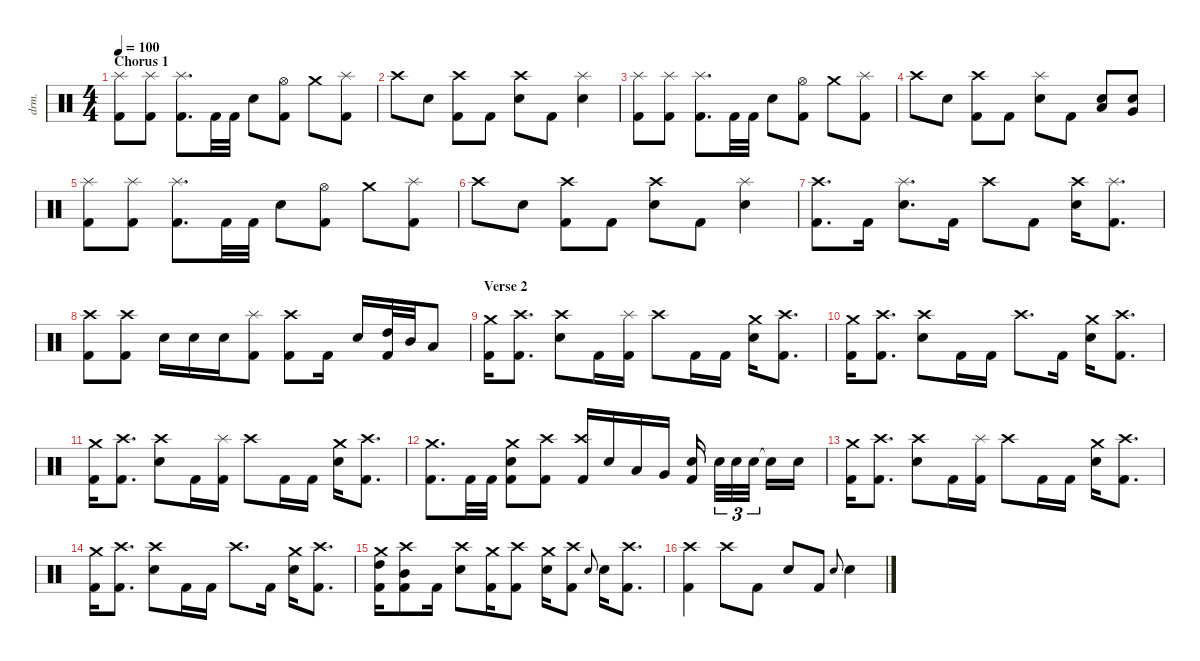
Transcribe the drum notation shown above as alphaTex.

\defaultSystemsLayout 4
\hideDynamics
\bracketExtendMode nobrackets
\otherSystemsTrackNameOrientation horizontal
\track ("Jorge" "drm.") {instrument percussion}
\staff {score}
\articulation defaults
\ts (4 4)
\section ("" "Chorus 1")
\tempo 100
\clef neutral
\ks c
("Splash (hit)" "Kick (hit) 2").8{dy mf beam Down} ("Kick (hit) 2" "Splash (hit)").8{beam Down} ("Kick (hit) 2" "Splash (hit)").8{d beam Down} "Kick (hit) 2".32{beam Down} "Kick (hit) 2".32{beam Down} "Snare (hit) 2".8{beam Down} ("Kick (hit) 2" "Hi-Hat (open)").8{beam Down} "Crash medium (hit)".8{beam Down} ("Splash (hit)" "Kick (hit) 2").8{beam Down} |
"Crash high (hit)".8{beam Down} "Snare (hit) 2".8{beam Down} ("Kick (hit) 2" "Crash high (hit)").8{beam Down} "Kick (hit) 2".8{beam Down} ("Snare (hit) 2" "Crash high (hit)").8{beam Down} "Kick (hit) 2".8{beam Down} ("Snare (hit) 2" "Splash (hit)").4{beam Down} |
("Splash (hit)" "Kick (hit) 2").8{beam Down} ("Kick (hit) 2" "Splash (hit)").8{beam Down} ("Kick (hit) 2" "Splash (hit)").8{d beam Down} "Kick (hit) 2".32{beam Down} "Kick (hit) 2".32{beam Down} "Snare (hit) 2".8{beam Down} ("Kick (hit) 2" "Hi-Hat (open)").8{beam Down} "Crash medium (hit)".8{beam Down} ("Splash (hit)" "Kick (hit) 2").8{beam Down} |
"Crash high (hit)".8{beam Down} "Snare (hit) 2".8{beam Down} ("Kick (hit) 2" "Crash high (hit)").8{beam Down} "Kick (hit) 2".8{beam Down} ("Snare (hit) 2" "Splash (hit)").8{beam Down} "Kick (hit) 2".8{beam Down} ("Snare (hit) 2" "Low Tom (hit)").8{beam Up} ("Snare (hit) 2" "Very Low Tom (hit)").8{beam Up} |
("Splash (hit)" "Kick (hit) 2").8{beam Down} ("Kick (hit) 2" "Splash (hit)").8{beam Down} ("Kick (hit) 2" "Splash (hit)").8{d beam Down} "Kick (hit) 2".32{beam Down} "Kick (hit) 2".32{beam Down} "Snare (hit) 2".8{beam Down} ("Kick (hit) 2" "Hi-Hat (open)").8{beam Down} "Crash medium (hit)".8{beam Down} ("Splash (hit)" "Kick (hit) 2").8{beam Down} |
"Crash high (hit)".8{beam Down} "Snare (hit) 2".8{beam Down} ("Kick (hit) 2" "Crash high (hit)").8{beam Down} "Kick (hit) 2".8{beam Down} ("Snare (hit) 2" "Crash high (hit)").8{beam Down} "Kick (hit) 2".8{beam Down} ("Snare (hit) 2" "Splash (hit)").4{beam Down} |
("Crash high (hit)" "Kick (hit) 2").8{d beam Down} "Kick (hit) 2".16{beam Down} ("Snare (hit) 2" "Splash (hit)").8{d beam Down} "Kick (hit) 2".16{beam Down} "Crash high (hit)".8{beam Down} "Kick (hit) 2".8{beam Down} ("Snare (hit) 2" "Crash high (hit)").16{beam Down} ("Kick (hit) 2" "Splash (hit)").8{d beam Down} |
("Kick (hit) 2" "Crash high (hit)").8{beam Down} ("Kick (hit) 2" "Crash high (hit)").8{beam Down} "Snare (hit) 2".16{beam Down} "Snare (hit) 2".16{beam Down} "Snare (hit) 2".16{beam Down} ("Kick (hit) 2" "Splash (hit)").8{beam Down} ("Kick (hit) 2" "Crash high (hit)").8{beam Down} "Kick (hit) 2".16{beam Down} "Snare (hit) 2".16{beam Up} ("High Tom (hit)" "Kick (hit) 2").32{beam Up} "Mid Tom (hit)".32{beam Up} "Low Tom (hit)".8{beam Up} |
\section ("" "Verse 2")
("Kick (hit) 2" "Crash medium (hit)").16{beam Down} ("Kick (hit) 2" "Crash high (hit)").8{d beam Down} ("Snare (hit) 2" "Crash high (hit)").8{beam Down} "Kick (hit) 2".16{beam Down} ("Kick (hit) 2" "Splash (hit)").16{beam Down} "Crash high (hit)".8{beam Down} "Kick (hit) 2".16{beam Down} "Kick (hit) 2".16{beam Down} ("Crash medium (hit)" "Snare (hit) 2").16{beam Down} ("Kick (hit) 2" "Crash high (hit)").8{d beam Down} |
("Kick (hit) 2" "Crash medium (hit)").16{beam Down} ("Kick (hit) 2" "Crash high (hit)").8{d beam Down} ("Snare (hit) 2" "Crash high (hit)").8{beam Down} "Kick (hit) 2".16{beam Down} "Kick (hit) 2".16{beam Down} "Crash high (hit)".8{d beam Down} "Kick (hit) 2".16{beam Down} ("Crash medium (hit)" "Snare (hit) 2").16{beam Down} ("Kick (hit) 2" "Crash high (hit)").8{d beam Down} |
("Kick (hit) 2" "Crash medium (hit)").16{beam Down} ("Kick (hit) 2" "Crash high (hit)").8{d beam Down} ("Snare (hit) 2" "Crash high (hit)").8{beam Down} "Kick (hit) 2".16{beam Down} ("Kick (hit) 2" "Splash (hit)").16{beam Down} "Crash high (hit)".8{beam Down} "Kick (hit) 2".16{beam Down} "Kick (hit) 2".16{beam Down} ("Crash medium (hit)" "Snare (hit) 2").16{beam Down} ("Kick (hit) 2" "Crash high (hit)").8{d beam Down} |
("Kick (hit) 2" "Crash medium (hit)").8{d beam Down} "Kick (hit) 2".32{beam Down} "Kick (hit) 2".32{beam Down} ("Kick (hit) 2" "Snare (hit) 2" "Crash medium (hit)").8{beam Down} ("Crash high (hit)" "Kick (hit) 2").8{beam Down} ("Crash high (hit)" "Kick (hit) 2").16{beam Up} "Snare (hit) 2".16{beam Up} "Low Tom (hit)".16{beam Up} "Very Low Tom (hit)".16{beam Up} ("Snare (hit) 2" "Kick (hit) 2").16{beam Up} "Snare (hit) 2".32{tu (3 2) beam Down} "Snare (hit) 2".32{tu (3 2) beam Down} "Snare (hit) 2".32{tu (3 2) beam Down} "Snare (hit) 2"{t}.16{beam Down} "Snare (hit) 2".16{beam Down} |
("Kick (hit) 2" "Crash medium (hit)").16{beam Down} ("Kick (hit) 2" "Crash high (hit)").8{d beam Down} ("Snare (hit) 2" "Crash high (hit)").8{beam Down} "Kick (hit) 2".16{beam Down} ("Kick (hit) 2" "Splash (hit)").16{beam Down} "Crash high (hit)".8{beam Down} "Kick (hit) 2".16{beam Down} "Kick (hit) 2".16{beam Down} ("Crash medium (hit)" "Snare (hit) 2").16{beam Down} ("Kick (hit) 2" "Crash high (hit)").8{d beam Down} |
("Kick (hit) 2" "Crash medium (hit)").16{beam Down} ("Kick (hit) 2" "Crash high (hit)").8{d beam Down} ("Snare (hit) 2" "Crash high (hit)").8{beam Down} "Kick (hit) 2".16{beam Down} "Kick (hit) 2".16{beam Down} "Crash high (hit)".8{d beam Down} "Kick (hit) 2".16{beam Down} ("Crash medium (hit)" "Snare (hit) 2").16{beam Down} ("Kick (hit) 2" "Crash high (hit)").8{d beam Down} |
("Kick (hit) 2" "Crash medium (hit)" "High Tom (hit)").16{beam Down} ("Kick (hit) 2" "Crash high (hit)" "Mid Tom (hit)").8{beam Down} "Kick (hit) 2".16{beam Down} ("Snare (hit) 2" "Crash high (hit)").8{beam Down} ("Kick (hit) 2" "Crash medium (hit)").16{beam Down} ("Kick (hit) 2" "Crash high (hit)").8{beam Down} ("Snare (hit) 2" "Crash medium (hit)").16{beam Down} ("Kick (hit) 2" "Crash high (hit)").8{beam Down} "Snare (hit) 2".8{gr onbeat beam Up} "Snare (hit) 2".16{beam Down} ("Kick (hit) 2" "Crash high (hit)").8{d beam Down} |
("Kick (hit) 2" "Crash high (hit)").4{beam Down} "Crash high (hit)".8{beam Down} "Kick (hit) 2".8{beam Down} "Snare (hit) 2".8{beam Up} "Kick (hit) 2".8{beam Up} "Snare (hit) 2".8{gr onbeat beam Up} "Snare (hit) 2".4{beam Down}
